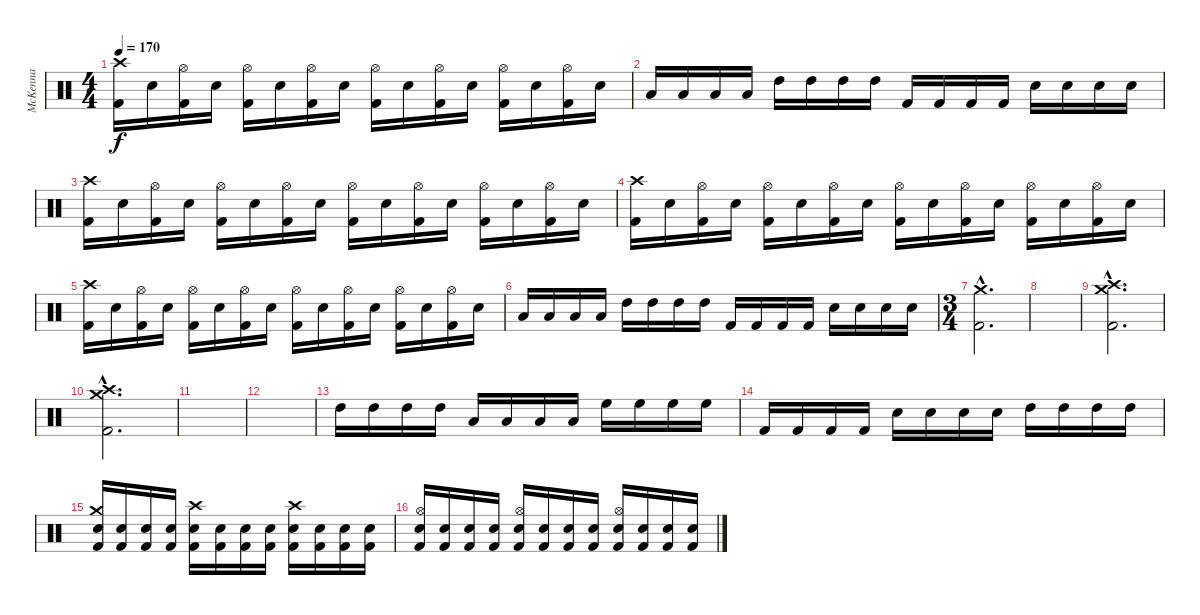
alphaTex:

\track ("McKenna" "McKenna") {instrument percussion}
\staff {score}
\articulation defaults
\ts (4 4)
\tempo 170
\clef neutral
\ks c
("Crash high (hit)" "Kick (hit) 2").16{dy f} "Snare (hit) 2".16 ("Hi-Hat (open)" "Kick (hit) 2").16 "Snare (hit) 2".16 ("Hi-Hat (open)" "Kick (hit) 2").16 "Snare (hit) 2".16 ("Hi-Hat (open)" "Kick (hit) 2").16 "Snare (hit) 2".16 ("Hi-Hat (open)" "Kick (hit) 2").16 "Snare (hit) 2".16 ("Hi-Hat (open)" "Kick (hit) 2").16 "Snare (hit) 2".16 ("Hi-Hat (open)" "Kick (hit) 2").16 "Snare (hit) 2".16 ("Hi-Hat (open)" "Kick (hit) 2").16 "Snare (hit) 2".16 |
"Low Tom (hit)".16 "Low Tom (hit)".16 "Low Tom (hit)".16 "Low Tom (hit)".16 "High Tom (hit)".16 "High Tom (hit)".16 "High Tom (hit)".16 "High Tom (hit)".16 "Kick (hit) 2".16 "Kick (hit) 2".16 "Kick (hit) 2".16 "Kick (hit) 2".16 "Snare (hit) 2".16 "Snare (hit) 2".16 "Snare (hit) 2".16 "Snare (hit) 2".16 |
("Crash high (hit)" "Kick (hit) 2").16 "Snare (hit) 2".16 ("Hi-Hat (open)" "Kick (hit) 2").16 "Snare (hit) 2".16 ("Hi-Hat (open)" "Kick (hit) 2").16 "Snare (hit) 2".16 ("Hi-Hat (open)" "Kick (hit) 2").16 "Snare (hit) 2".16 ("Hi-Hat (open)" "Kick (hit) 2").16 "Snare (hit) 2".16 ("Hi-Hat (open)" "Kick (hit) 2").16 "Snare (hit) 2".16 ("Hi-Hat (open)" "Kick (hit) 2").16 "Snare (hit) 2".16 ("Hi-Hat (open)" "Kick (hit) 2").16 "Snare (hit) 2".16 |
("Crash high (hit)" "Kick (hit) 2").16 "Snare (hit) 2".16 ("Hi-Hat (open)" "Kick (hit) 2").16 "Snare (hit) 2".16 ("Hi-Hat (open)" "Kick (hit) 2").16 "Snare (hit) 2".16 ("Hi-Hat (open)" "Kick (hit) 2").16 "Snare (hit) 2".16 ("Hi-Hat (open)" "Kick (hit) 2").16 "Snare (hit) 2".16 ("Hi-Hat (open)" "Kick (hit) 2").16 "Snare (hit) 2".16 ("Hi-Hat (open)" "Kick (hit) 2").16 "Snare (hit) 2".16 ("Hi-Hat (open)" "Kick (hit) 2").16 "Snare (hit) 2".16 |
("Crash high (hit)" "Kick (hit) 2").16 "Snare (hit) 2".16 ("Hi-Hat (open)" "Kick (hit) 2").16 "Snare (hit) 2".16 ("Hi-Hat (open)" "Kick (hit) 2").16 "Snare (hit) 2".16 ("Hi-Hat (open)" "Kick (hit) 2").16 "Snare (hit) 2".16 ("Hi-Hat (open)" "Kick (hit) 2").16 "Snare (hit) 2".16 ("Hi-Hat (open)" "Kick (hit) 2").16 "Snare (hit) 2".16 ("Hi-Hat (open)" "Kick (hit) 2").16 "Snare (hit) 2".16 ("Hi-Hat (open)" "Kick (hit) 2").16 "Snare (hit) 2".16 |
"Low Tom (hit)".16 "Low Tom (hit)".16 "Low Tom (hit)".16 "Low Tom (hit)".16 "High Tom (hit)".16 "High Tom (hit)".16 "High Tom (hit)".16 "High Tom (hit)".16 "Kick (hit) 2".16 "Kick (hit) 2".16 "Kick (hit) 2".16 "Kick (hit) 2".16 "Snare (hit) 2".16 "Snare (hit) 2".16 "Snare (hit) 2".16 "Snare (hit) 2".16 |
\ts (3 4)
("Crash medium (hit)"{hac} "Kick (hit) 2"{hac}).2{d} |
|
("Crash medium (hit)"{hac} "Crash high (hit)"{hac} "Kick (hit) 2"{hac}).2{d} |
("Crash medium (hit)"{hac} "Crash high (hit)"{hac} "Kick (hit) 2"{hac}).2{d} |
|
|
"High Tom (hit)".16 "High Tom (hit)".16 "High Tom (hit)".16 "High Tom (hit)".16 "Low Tom (hit)".16 "Low Tom (hit)".16 "Low Tom (hit)".16 "Low Tom (hit)".16 "High Floor Tom (hit)".16 "High Floor Tom (hit)".16 "High Floor Tom (hit)".16 "High Floor Tom (hit)".16 |
"Kick (hit) 2".16 "Kick (hit) 2".16 "Kick (hit) 2".16 "Kick (hit) 2".16 "Snare (hit) 2".16 "Snare (hit) 2".16 "Snare (hit) 2".16 "Snare (hit) 2".16 "High Tom (hit)".16 "High Tom (hit)".16 "High Tom (hit)".16 "High Tom (hit)".16 |
("Crash medium (hit)" "Electric Snare (hit)" "Kick (hit) 2").16 ("Electric Snare (hit)" "Kick (hit) 2").16 ("Electric Snare (hit)" "Kick (hit) 2").16 ("Electric Snare (hit)" "Kick (hit) 2").16 ("Crash high (hit)" "Electric Snare (hit)" "Kick (hit) 2").16 ("Electric Snare (hit)" "Kick (hit) 2").16 ("Electric Snare (hit)" "Kick (hit) 2").16 ("Electric Snare (hit)" "Kick (hit) 2").16 ("Crash high (hit)" "Electric Snare (hit)" "Kick (hit) 2").16 ("Electric Snare (hit)" "Kick (hit) 2").16 ("Electric Snare (hit)" "Kick (hit) 2").16 ("Electric Snare (hit)" "Kick (hit) 2").16 |
("Hi-Hat (open)" "Electric Snare (hit)" "Kick (hit) 2").16 ("Electric Snare (hit)" "Kick (hit) 2").16 ("Electric Snare (hit)" "Kick (hit) 2").16 ("Electric Snare (hit)" "Kick (hit) 2").16 ("Hi-Hat (open)" "Electric Snare (hit)" "Kick (hit) 2").16 ("Electric Snare (hit)" "Kick (hit) 2").16 ("Electric Snare (hit)" "Kick (hit) 2").16 ("Electric Snare (hit)" "Kick (hit) 2").16 ("Hi-Hat (open)" "Electric Snare (hit)" "Kick (hit) 2").16 ("Electric Snare (hit)" "Kick (hit) 2").16 ("Electric Snare (hit)" "Kick (hit) 2").16 ("Electric Snare (hit)" "Kick (hit) 2").16
